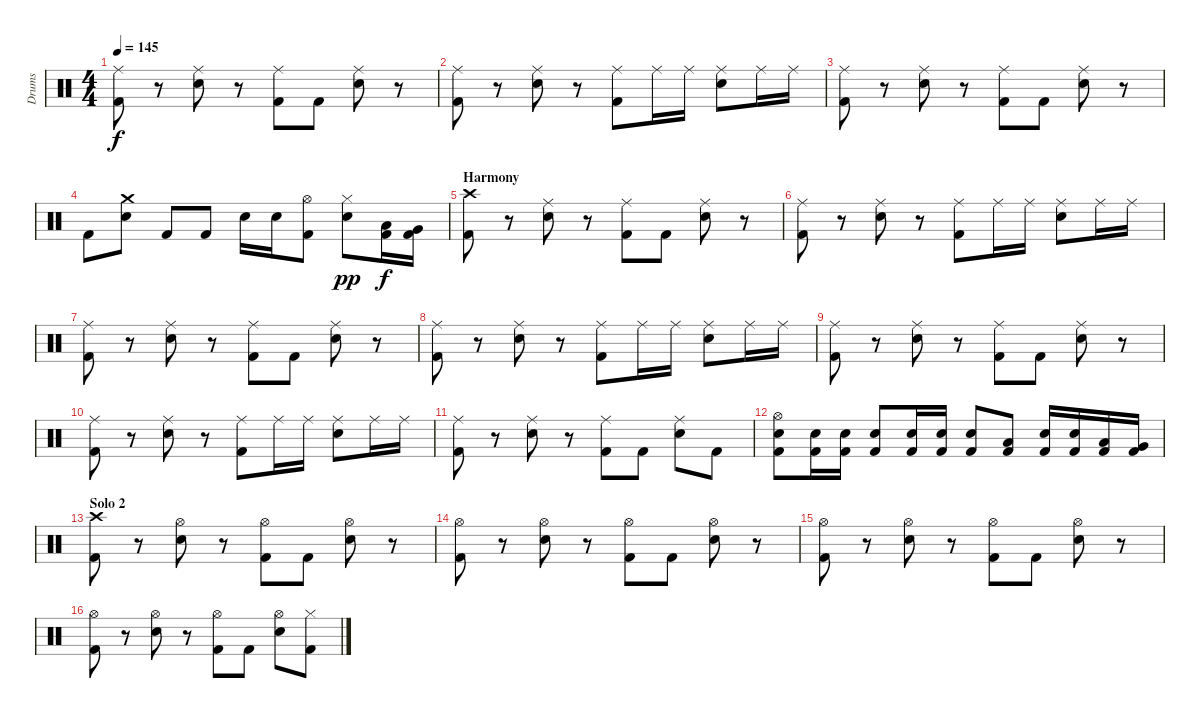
\track ("Drums" "Drums") {instrument percussion}
\staff {score}
\articulation defaults
\ts (4 4)
\tempo 145
\clef neutral
\ks c
("Ride (middle)" "Kick (hit) 2").8{dy f} r.8 ("Ride (middle)" "Snare (hit) 2").8 r.8 ("Ride (middle)" "Kick (hit) 2").8 "Kick (hit) 2".8 ("Ride (middle)" "Snare (hit) 2").8 r.8 |
("Ride (middle)" "Kick (hit) 2").8 r.8 ("Ride (middle)" "Snare (hit) 2").8 r.8 ("Ride (middle)" "Kick (hit) 2").8 "Ride (middle)".16 "Ride (middle)".16 ("Ride (middle)" "Snare (hit) 2").8 "Ride (middle)".16 "Ride (middle)".16 |
("Ride (middle)" "Kick (hit) 2").8 r.8 ("Ride (middle)" "Snare (hit) 2").8 r.8 ("Ride (middle)" "Kick (hit) 2").8 "Kick (hit) 2".8 ("Ride (middle)" "Snare (hit) 2").8 r.8 |
"Kick (hit) 2".8 ("Crash medium (hit)" "Snare (hit) 2").8 "Kick (hit) 2".8 "Kick (hit) 2".8 "Snare (hit) 2".16 "Snare (hit) 2".16 ("Hi-Hat (open)" "Kick (hit) 2").8 ("Hi-Hat (closed)" "Snare (hit) 2").8{dy pp} ("Low Tom (hit)" "Kick (hit) 2").16{dy f} ("Very Low Tom (hit)" "Kick (hit) 2").16 |
\section ("" "Harmony")
("Crash high (hit)" "Kick (hit) 2").8 r.8 ("Ride (middle)" "Snare (hit) 2").8 r.8 ("Ride (middle)" "Kick (hit) 2").8 "Kick (hit) 2".8 ("Ride (middle)" "Snare (hit) 2").8 r.8 |
("Ride (middle)" "Kick (hit) 2").8 r.8 ("Ride (middle)" "Snare (hit) 2").8 r.8 ("Ride (middle)" "Kick (hit) 2").8 "Ride (middle)".16 "Ride (middle)".16 ("Ride (middle)" "Snare (hit) 2").8 "Ride (middle)".16 "Ride (middle)".16 |
("Ride (middle)" "Kick (hit) 2").8 r.8 ("Ride (middle)" "Snare (hit) 2").8 r.8 ("Ride (middle)" "Kick (hit) 2").8 "Kick (hit) 2".8 ("Ride (middle)" "Snare (hit) 2").8 r.8 |
("Ride (middle)" "Kick (hit) 2").8 r.8 ("Ride (middle)" "Snare (hit) 2").8 r.8 ("Ride (middle)" "Kick (hit) 2").8 "Ride (middle)".16 "Ride (middle)".16 ("Ride (middle)" "Snare (hit) 2").8 "Ride (middle)".16 "Ride (middle)".16 |
("Ride (middle)" "Kick (hit) 2").8 r.8 ("Ride (middle)" "Snare (hit) 2").8 r.8 ("Ride (middle)" "Kick (hit) 2").8 "Kick (hit) 2".8 ("Ride (middle)" "Snare (hit) 2").8 r.8 |
("Ride (middle)" "Kick (hit) 2").8 r.8 ("Ride (middle)" "Snare (hit) 2").8 r.8 ("Ride (middle)" "Kick (hit) 2").8 "Ride (middle)".16 "Ride (middle)".16 ("Ride (middle)" "Snare (hit) 2").8 "Ride (middle)".16 "Ride (middle)".16 |
("Ride (middle)" "Kick (hit) 2").8 r.8 ("Ride (middle)" "Snare (hit) 2").8 r.8 ("Ride (middle)" "Kick (hit) 2").8 "Kick (hit) 2".8 ("Ride (middle)" "Snare (hit) 2").8 "Kick (hit) 2".8 |
("Hi-Hat (open)" "Snare (hit) 2" "Kick (hit) 2").8 ("Snare (hit) 2" "Kick (hit) 2").16 ("Snare (hit) 2" "Kick (hit) 2").16 ("Snare (hit) 2" "Kick (hit) 2").8 ("Snare (hit) 2" "Kick (hit) 2").16 ("Snare (hit) 2" "Kick (hit) 2").16 ("Snare (hit) 2" "Kick (hit) 2").8 ("Low Tom (hit)" "Kick (hit) 2").8 ("Snare (hit) 2" "Kick (hit) 2").16 ("Snare (hit) 2" "Kick (hit) 2").16 ("Low Tom (hit)" "Kick (hit) 2").16 ("Very Low Tom (hit)" "Kick (hit) 2").16 |
\section ("" "Solo 2")
("Crash high (hit)" "Kick (hit) 2").8 r.8 ("Hi-Hat (open)" "Snare (hit) 2").8 r.8 ("Hi-Hat (open)" "Kick (hit) 2").8 "Kick (hit) 2".8 ("Hi-Hat (open)" "Snare (hit) 2").8 r.8 |
("Hi-Hat (open)" "Kick (hit) 2").8 r.8 ("Hi-Hat (open)" "Snare (hit) 2").8 r.8 ("Hi-Hat (open)" "Kick (hit) 2").8 "Kick (hit) 2".8 ("Hi-Hat (open)" "Snare (hit) 2").8 r.8 |
("Hi-Hat (open)" "Kick (hit) 2").8 r.8 ("Hi-Hat (open)" "Snare (hit) 2").8 r.8 ("Hi-Hat (open)" "Kick (hit) 2").8 "Kick (hit) 2".8 ("Hi-Hat (open)" "Snare (hit) 2").8 r.8 |
("Hi-Hat (open)" "Kick (hit) 2").8 r.8 ("Hi-Hat (open)" "Snare (hit) 2").8 r.8 ("Hi-Hat (open)" "Kick (hit) 2").8 "Kick (hit) 2".8 ("Hi-Hat (open)" "Snare (hit) 2").8 ("Hi-Hat (closed)" "Kick (hit) 2").8
